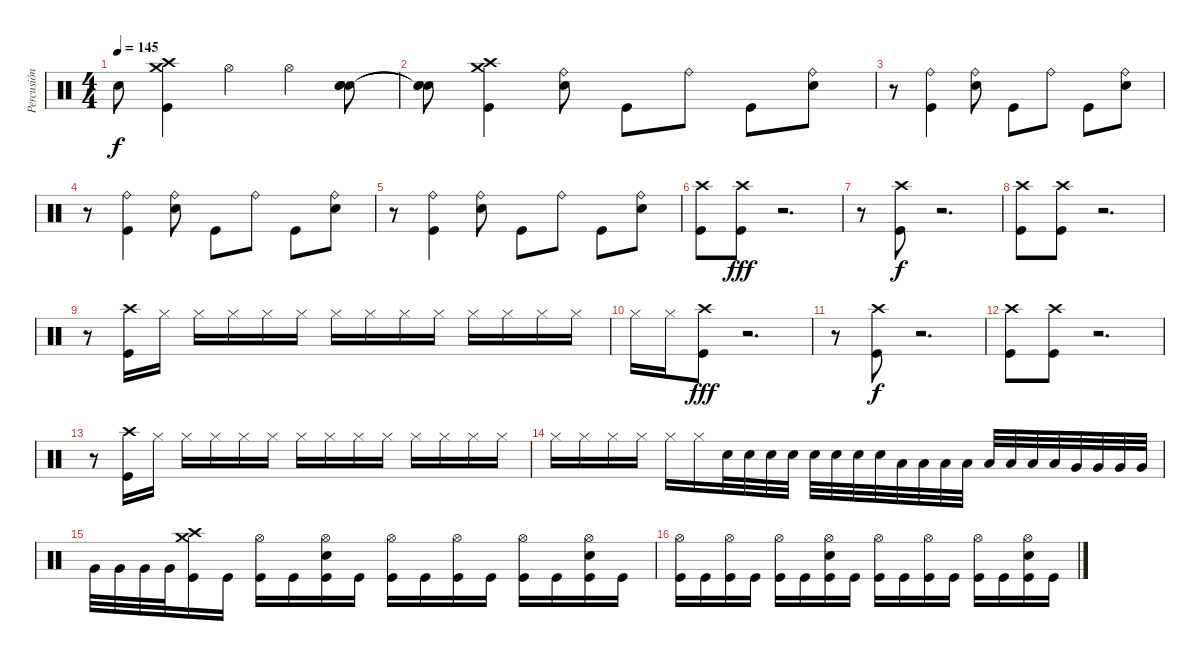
\track ("Percusión" "Percusión") {instrument percussion}
\staff {score}
\articulation defaults
\ts (4 4)
\tempo 145
\clef neutral
\ks c "Snare (hit)"{t}.8{dy f}
("Crash high (hit)" "Crash medium (hit)" "Kick (hit)").4 "Hi-Hat (open)".4 "Hi-Hat (open)".4 ("Snare (hit) 2" "Snare (hit) 2" "Snare (hit) 2").8 |
("Snare (hit)"{t} "Snare (hit)"{t} "Snare (hit)"{t}).8 ("Crash medium (hit)" "Crash high (hit)" "Kick (hit)").4 ("Ride (bell)" "Snare (hit) 2").8 "Kick (hit)".8 "Ride (bell)".8 "Kick (hit)".8 ("Ride (bell)" "Snare (hit) 2").8 |
r.8 ("Ride (bell)" "Kick (hit)").4 ("Ride (bell)" "Snare (hit) 2").8 "Kick (hit)".8 "Ride (bell)".8 "Kick (hit)".8 ("Ride (bell)" "Snare (hit) 2").8 |
r.8 ("Ride (bell)" "Kick (hit)").4 ("Ride (bell)" "Snare (hit) 2").8 "Kick (hit)".8 "Ride (bell)".8 "Kick (hit)".8 ("Ride (bell)" "Snare (hit) 2").8 |
r.8 ("Ride (bell)" "Kick (hit)").4 ("Ride (bell)" "Snare (hit) 2").8 "Kick (hit)".8 "Ride (bell)".8 "Kick (hit)".8 ("Ride (bell)" "Snare (hit) 2").8 |
("Crash high (hit)" "Kick (hit)").8 ("Crash high (hit)" "Kick (hit)").8{dy fff} r.2{d} |
r.8 ("Crash high (hit)" "Kick (hit)").8{dy f} r.2{d} |
("Crash high (hit)" "Kick (hit)").8 ("Crash high (hit)" "Kick (hit)").8 r.2{d} |
r.8 ("Crash high (hit)" "Kick (hit)").16 "Hi-Hat (closed)".16 "Hi-Hat (closed)".16 "Hi-Hat (closed)".16 "Hi-Hat (closed)".16 "Hi-Hat (closed)".16 "Hi-Hat (closed)".16 "Hi-Hat (closed)".16 "Hi-Hat (closed)".16 "Hi-Hat (closed)".16 "Hi-Hat (closed)".16 "Hi-Hat (closed)".16 "Hi-Hat (closed)".16 "Hi-Hat (closed)".16 |
"Hi-Hat (closed)".16 "Hi-Hat (closed)".16 ("Crash high (hit)" "Kick (hit)").8{dy fff} r.2{d} |
r.8 ("Crash high (hit)" "Kick (hit)").8{dy f} r.2{d} |
("Crash high (hit)" "Kick (hit)").8 ("Crash high (hit)" "Kick (hit)").8 r.2{d} |
r.8 ("Crash high (hit)" "Kick (hit)").16 "Hi-Hat (closed)".16 "Hi-Hat (closed)".16 "Hi-Hat (closed)".16 "Hi-Hat (closed)".16 "Hi-Hat (closed)".16 "Hi-Hat (closed)".16 "Hi-Hat (closed)".16 "Hi-Hat (closed)".16 "Hi-Hat (closed)".16 "Hi-Hat (closed)".16 "Hi-Hat (closed)".16 "Hi-Hat (closed)".16 "Hi-Hat (closed)".16 |
"Hi-Hat (closed)".16 "Hi-Hat (closed)".16 "Hi-Hat (closed)".16 "Hi-Hat (closed)".16 "Hi-Hat (closed)".16 "Hi-Hat (closed)".16 "Snare (hit) 2".32 "Snare (hit) 2".32 "Snare (hit) 2".32 "Snare (hit) 2".32 "Snare (hit) 2".32 "Snare (hit) 2".32 "Snare (hit) 2".32 "Snare (hit) 2".32 "Low Tom (hit)".32 "Low Tom (hit)".32 "Low Tom (hit)".32 "Low Tom (hit)".32 "Low Tom (hit)".32 "Low Tom (hit)".32 "Low Tom (hit)".32 "Low Tom (hit)".32 "Very Low Tom (hit)".32 "Very Low Tom (hit)".32 "Very Low Tom (hit)".32 "Very Low Tom (hit)".32 |
"Very Low Tom (hit)".32 "Very Low Tom (hit)".32 "Very Low Tom (hit)".32 "Very Low Tom (hit)".32 ("Crash medium (hit)" "Crash high (hit)" "Kick (hit)").16 "Kick (hit)".16 ("Hi-Hat (open)" "Kick (hit)").16 "Kick (hit)".16 ("Hi-Hat (open)" "Snare (hit) 2" "Kick (hit)").16 "Kick (hit)".16 ("Hi-Hat (open)" "Kick (hit)").16 "Kick (hit)".16 ("Hi-Hat (open)" "Kick (hit)").16 "Kick (hit)".16 ("Hi-Hat (open)" "Kick (hit)").16 "Kick (hit)".16 ("Hi-Hat (open)" "Snare (hit) 2" "Kick (hit)").16 "Kick (hit)".16 |
("Hi-Hat (open)" "Kick (hit)").16 "Kick (hit)".16 ("Hi-Hat (open)" "Kick (hit)").16 "Kick (hit)".16 ("Hi-Hat (open)" "Kick (hit)").16 "Kick (hit)".16 ("Hi-Hat (open)" "Snare (hit) 2" "Kick (hit)").16 "Kick (hit)".16 ("Hi-Hat (open)" "Kick (hit)").16 "Kick (hit)".16 ("Hi-Hat (open)" "Kick (hit)").16 "Kick (hit)".16 ("Hi-Hat (open)" "Kick (hit)").16 "Kick (hit)".16 ("Hi-Hat (open)" "Snare (hit) 2" "Kick (hit)").16 "Kick (hit)".16
